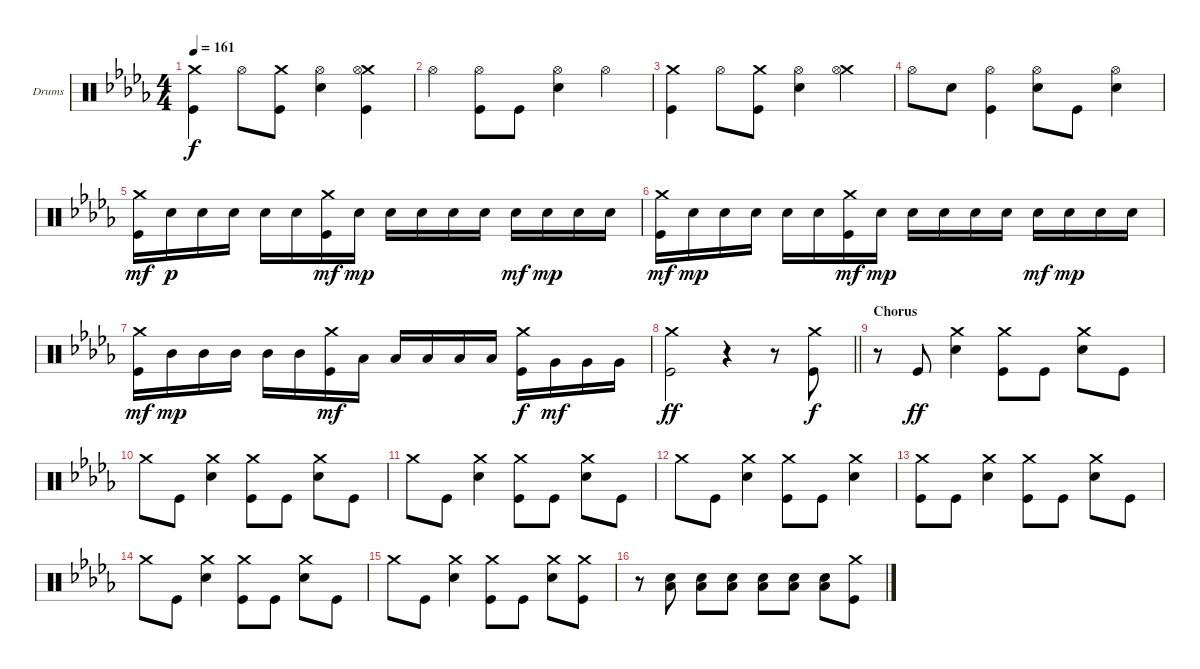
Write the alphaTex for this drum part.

\bracketExtendMode groupsimilarinstruments
\firstSystemTrackNameOrientation horizontal
\otherSystemsTrackNameOrientation horizontal
\track ("Drumkit" "Drums") {instrument percussion}
\staff {score}
\articulation defaults
\ts (4 4)
\tempo 161
\clef neutral
\ks db
("Crash medium (hit)" "Kick (hit)").4{dy f} "Hi-Hat (open)".8 ("Kick (hit)" "Crash medium (hit)").8 ("Snare (hit) 2" "Hi-Hat (open)").4 ("Kick (hit)" "Crash medium (hit)" "Hi-Hat (open)").4 |
"Hi-Hat (open)".4 ("Kick (hit)" "Hi-Hat (open)").8 "Kick (hit)".8 ("Snare (hit) 2" "Hi-Hat (open)").4 "Hi-Hat (open)".4 |
("Crash medium (hit)" "Kick (hit)").4 "Hi-Hat (open)".8 ("Kick (hit)" "Crash medium (hit)").8 ("Snare (hit) 2" "Hi-Hat (open)").4 ("Crash medium (hit)" "Hi-Hat (open)").4 |
"Hi-Hat (open)".8 "Snare (hit) 2".8 ("Kick (hit)" "Hi-Hat (open)").4 ("Snare (hit) 2" "Hi-Hat (open)").8 "Kick (hit)".8 ("Snare (hit) 2" "Hi-Hat (open)").4 |
("Kick (hit)" "Crash medium (hit)").16{dy mf} "Snare (hit) 2".16{dy p} "Snare (hit) 2".16 "Snare (hit) 2".16 "Snare (hit) 2".16 "Snare (hit) 2".16 ("Kick (hit)" "Crash medium (hit)").16{dy mf} "Snare (hit) 2".16{dy mp} "Snare (hit) 2".16 "Snare (hit) 2".16 "Snare (hit) 2".16 "Snare (hit) 2".16 "Snare (hit) 2".16{dy mf} "Snare (hit) 2".16{dy mp} "Snare (hit) 2".16 "Snare (hit) 2".16 |
("Kick (hit)" "Crash medium (hit)").16{dy mf} "Snare (hit) 2".16{dy mp} "Snare (hit) 2".16 "Snare (hit) 2".16 "Snare (hit) 2".16 "Snare (hit) 2".16 ("Kick (hit)" "Crash medium (hit)").16{dy mf} "Snare (hit) 2".16{dy mp} "Snare (hit) 2".16 "Snare (hit) 2".16 "Snare (hit) 2".16 "Snare (hit) 2".16 "Snare (hit) 2".16{dy mf} "Snare (hit) 2".16{dy mp} "Snare (hit) 2".16 "Snare (hit) 2".16 |
("Kick (hit)" "Crash medium (hit)").16{dy mf} "Mid Tom (hit)".16{dy mp} "Mid Tom (hit)".16 "Mid Tom (hit)".16 "Mid Tom (hit)".16 "Mid Tom (hit)".16 ("Kick (hit)" "Crash medium (hit)").16{dy mf} "Low Tom (hit)".16 "Low Tom (hit)".16 "Low Tom (hit)".16 "Low Tom (hit)".16 "Low Tom (hit)".16 ("Crash medium (hit)" "Kick (hit)").16{dy f} "Very Low Tom (hit)".16{dy mf} "Very Low Tom (hit)".16 "Very Low Tom (hit)".16 |
\barLineRight lightlight
("Kick (hit)" "Crash medium (hit)").2{dy ff} r.4 r.8 ("Crash medium (hit)" "Kick (hit)").8{dy f} |
\section ("" "Chorus")
r.8 "Kick (hit)".8{dy ff} ("Snare (hit) 2" "Crash medium (hit)").4 ("Kick (hit)" "Crash medium (hit)").8 "Kick (hit)".8 ("Snare (hit) 2" "Crash medium (hit)").8 "Kick (hit)".8 |
"Crash medium (hit)".8 "Kick (hit)".8 ("Snare (hit) 2" "Crash medium (hit)").4 ("Kick (hit)" "Crash medium (hit)").8 "Kick (hit)".8 ("Snare (hit) 2" "Crash medium (hit)").8 "Kick (hit)".8 |
"Crash medium (hit)".8 "Kick (hit)".8 ("Snare (hit) 2" "Crash medium (hit)").4 ("Kick (hit)" "Crash medium (hit)").8 "Kick (hit)".8 ("Snare (hit) 2" "Crash medium (hit)").8 "Kick (hit)".8 |
"Crash medium (hit)".8 "Kick (hit)".8 ("Snare (hit) 2" "Crash medium (hit)").4 ("Kick (hit)" "Crash medium (hit)").8 "Kick (hit)".8 ("Snare (hit) 2" "Crash medium (hit)").4 |
("Kick (hit)" "Crash medium (hit)").8 "Kick (hit)".8 ("Snare (hit) 2" "Crash medium (hit)").4 ("Kick (hit)" "Crash medium (hit)").8 "Kick (hit)".8 ("Snare (hit) 2" "Crash medium (hit)").8 "Kick (hit)".8 |
"Crash medium (hit)".8 "Kick (hit)".8 ("Snare (hit) 2" "Crash medium (hit)").4 ("Kick (hit)" "Crash medium (hit)").8 "Kick (hit)".8 ("Snare (hit) 2" "Crash medium (hit)").8 "Kick (hit)".8 |
"Crash medium (hit)".8 "Kick (hit)".8 ("Snare (hit) 2" "Crash medium (hit)").4 ("Kick (hit)" "Crash medium (hit)").8 "Kick (hit)".8 ("Snare (hit) 2" "Crash medium (hit)").8 ("Kick (hit)" "Crash medium (hit)").8 |
r.8 ("Snare (hit) 2" "Low Tom (hit)").8 ("Snare (hit) 2" "Low Tom (hit)").8 ("Snare (hit) 2" "Low Tom (hit)").8 ("Snare (hit) 2" "Low Tom (hit)").8 ("Snare (hit) 2" "Low Tom (hit)").8 ("Snare (hit) 2" "Low Tom (hit)").8 ("Kick (hit)" "Crash medium (hit)").8
